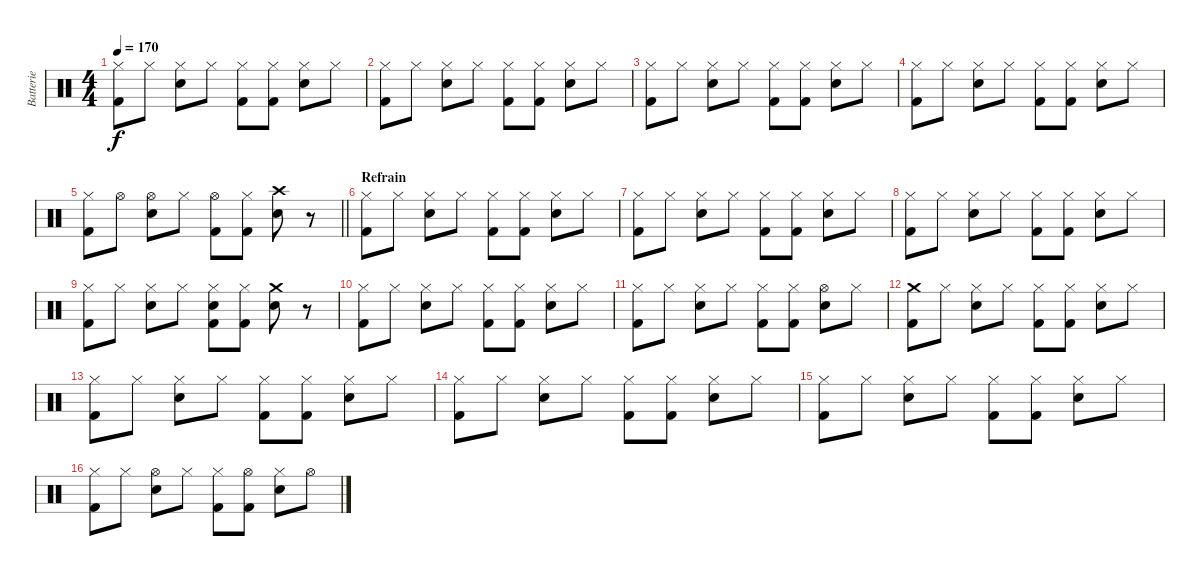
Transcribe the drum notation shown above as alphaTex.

\track ("Batterie" "Batterie") {instrument percussion}
\staff {score}
\articulation defaults
\ts (4 4)
\tempo 170
\clef neutral
\ks c
("Kick (hit) 2" "Hi-Hat (closed)").8{dy f} "Hi-Hat (closed)".8 ("Snare (hit) 2" "Hi-Hat (closed)").8 "Hi-Hat (closed)".8 ("Kick (hit) 2" "Hi-Hat (closed)").8 ("Kick (hit) 2" "Hi-Hat (closed)").8 ("Snare (hit) 2" "Hi-Hat (closed)").8 "Hi-Hat (closed)".8 |
("Kick (hit) 2" "Hi-Hat (closed)").8 "Hi-Hat (closed)".8 ("Snare (hit) 2" "Hi-Hat (closed)").8 "Hi-Hat (closed)".8 ("Kick (hit) 2" "Hi-Hat (closed)").8 ("Kick (hit) 2" "Hi-Hat (closed)").8 ("Snare (hit) 2" "Hi-Hat (closed)").8 "Hi-Hat (closed)".8 |
("Kick (hit) 2" "Hi-Hat (closed)").8 "Hi-Hat (closed)".8 ("Snare (hit) 2" "Hi-Hat (closed)").8 "Hi-Hat (closed)".8 ("Kick (hit) 2" "Hi-Hat (closed)").8 ("Kick (hit) 2" "Hi-Hat (closed)").8 ("Snare (hit) 2" "Hi-Hat (closed)").8 "Hi-Hat (closed)".8 |
("Kick (hit) 2" "Hi-Hat (closed)").8 "Hi-Hat (closed)".8 ("Snare (hit) 2" "Hi-Hat (closed)").8 "Hi-Hat (closed)".8 ("Kick (hit) 2" "Hi-Hat (closed)").8 ("Kick (hit) 2" "Hi-Hat (closed)").8 ("Snare (hit) 2" "Hi-Hat (closed)").8 "Hi-Hat (closed)".8 |
\barLineRight lightlight
("Kick (hit) 2" "Hi-Hat (closed)").8 "Hi-Hat (open)".8 ("Snare (hit) 2" "Hi-Hat (open)").8 "Hi-Hat (closed)".8 ("Kick (hit) 2" "Hi-Hat (open)").8 ("Kick (hit) 2" "Hi-Hat (closed)").8 ("Snare (hit) 2" "Crash high (hit)").8 r.8 |
\section ("" "Refrain")
("Kick (hit) 2" "Hi-Hat (closed)").8 "Hi-Hat (closed)".8 ("Snare (hit) 2" "Hi-Hat (closed)").8 "Hi-Hat (closed)".8 ("Kick (hit) 2" "Hi-Hat (closed)").8 ("Kick (hit) 2" "Hi-Hat (closed)").8 ("Snare (hit) 2" "Hi-Hat (closed)").8 "Hi-Hat (closed)".8 |
("Kick (hit) 2" "Hi-Hat (closed)").8 "Hi-Hat (closed)".8 ("Snare (hit) 2" "Hi-Hat (closed)").8 "Hi-Hat (closed)".8 ("Kick (hit) 2" "Hi-Hat (closed)").8 ("Kick (hit) 2" "Hi-Hat (closed)").8 ("Snare (hit) 2" "Hi-Hat (closed)").8 "Hi-Hat (closed)".8 |
("Kick (hit) 2" "Hi-Hat (closed)").8 "Hi-Hat (closed)".8 ("Snare (hit) 2" "Hi-Hat (closed)").8 "Hi-Hat (closed)".8 ("Kick (hit) 2" "Hi-Hat (closed)").8 ("Kick (hit) 2" "Hi-Hat (closed)").8 ("Snare (hit) 2" "Hi-Hat (closed)").8 "Hi-Hat (closed)".8 |
("Kick (hit) 2" "Hi-Hat (closed)").8 "Hi-Hat (closed)".8 ("Snare (hit) 2" "Hi-Hat (closed)").8 "Hi-Hat (closed)".8 ("Kick (hit) 2" "Snare (hit) 2" "Hi-Hat (closed)").8 ("Kick (hit) 2" "Hi-Hat (closed)").8 ("Snare (hit) 2" "Crash medium (hit)").8 r.8 |
("Kick (hit) 2" "Hi-Hat (closed)").8 "Hi-Hat (closed)".8 ("Snare (hit) 2" "Hi-Hat (closed)").8 "Hi-Hat (closed)".8 ("Kick (hit) 2" "Hi-Hat (closed)").8 ("Kick (hit) 2" "Hi-Hat (closed)").8 ("Snare (hit) 2" "Hi-Hat (closed)").8 "Hi-Hat (closed)".8 |
("Kick (hit) 2" "Hi-Hat (closed)").8 "Hi-Hat (closed)".8 ("Snare (hit) 2" "Hi-Hat (closed)").8 "Hi-Hat (closed)".8 ("Kick (hit) 2" "Hi-Hat (closed)").8 ("Kick (hit) 2" "Hi-Hat (closed)").8 ("Snare (hit) 2" "Hi-Hat (open)").8 "Hi-Hat (closed)".8 |
("Kick (hit) 2" "Crash medium (hit)").8 "Hi-Hat (closed)".8 ("Snare (hit) 2" "Hi-Hat (closed)").8 "Hi-Hat (closed)".8 ("Kick (hit) 2" "Hi-Hat (closed)").8 ("Kick (hit) 2" "Hi-Hat (closed)").8 ("Snare (hit) 2" "Hi-Hat (closed)").8 "Hi-Hat (closed)".8 |
("Kick (hit) 2" "Hi-Hat (closed)").8 "Hi-Hat (closed)".8 ("Snare (hit) 2" "Hi-Hat (closed)").8 "Hi-Hat (closed)".8 ("Kick (hit) 2" "Hi-Hat (closed)").8 ("Kick (hit) 2" "Hi-Hat (closed)").8 ("Snare (hit) 2" "Hi-Hat (closed)").8 "Hi-Hat (closed)".8 |
("Kick (hit) 2" "Hi-Hat (closed)").8 "Hi-Hat (closed)".8 ("Snare (hit) 2" "Hi-Hat (closed)").8 "Hi-Hat (closed)".8 ("Kick (hit) 2" "Hi-Hat (closed)").8 ("Kick (hit) 2" "Hi-Hat (closed)").8 ("Snare (hit) 2" "Hi-Hat (closed)").8 "Hi-Hat (closed)".8 |
("Kick (hit) 2" "Hi-Hat (closed)").8 "Hi-Hat (closed)".8 ("Snare (hit) 2" "Hi-Hat (closed)").8 "Hi-Hat (closed)".8 ("Kick (hit) 2" "Hi-Hat (closed)").8 ("Kick (hit) 2" "Hi-Hat (closed)").8 ("Snare (hit) 2" "Hi-Hat (closed)").8 "Hi-Hat (closed)".8 |
("Kick (hit) 2" "Hi-Hat (closed)").8 "Hi-Hat (closed)".8 ("Snare (hit) 2" "Hi-Hat (open)").8 "Hi-Hat (closed)".8 ("Kick (hit) 2" "Hi-Hat (closed)").8 ("Kick (hit) 2" "Hi-Hat (open)").8 ("Snare (hit) 2" "Hi-Hat (closed)").8 "Hi-Hat (open)".8
